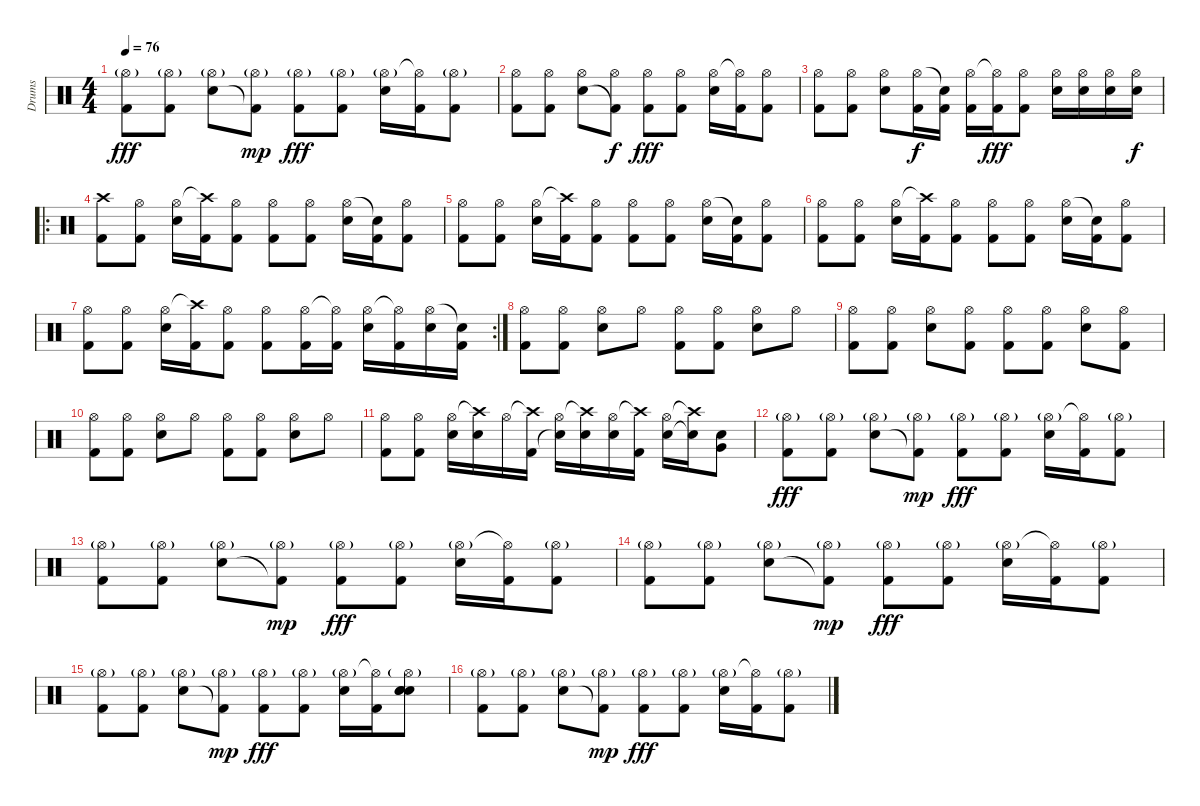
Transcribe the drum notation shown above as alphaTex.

\track ("Drums" "Drums") {instrument percussion}
\staff {score}
\articulation defaults
\ts (4 4)
\tempo 76
\clef neutral
\ks c
("Hi-Hat (open)"{g} "Kick (hit) 2").8{dy fff} ("Hi-Hat (open)"{g} "Kick (hit) 2").8 ("Hi-Hat (open)"{g} "Electric Snare (hit)").8 ("Hi-Hat (open)"{g} "Kick (hit) 2"{t}).8{dy mp} ("Hi-Hat (open)"{g} "Kick (hit) 2").8{dy fff} ("Hi-Hat (open)"{g} "Kick (hit) 2").8 ("Hi-Hat (open)"{g} "Electric Snare (hit)").16 ("Hi-Hat (open)"{t} "Kick (hit) 2").16 ("Hi-Hat (open)"{g} "Kick (hit) 2").8 |
("Hi-Hat (open)" "Kick (hit) 2").8 ("Hi-Hat (open)" "Kick (hit) 2").8 ("Hi-Hat (open)" "Electric Snare (hit)").8 ("Hi-Hat (open)" "Kick (hit) 2"{t}).8{dy f} ("Hi-Hat (open)" "Kick (hit) 2").8{dy fff} ("Hi-Hat (open)" "Kick (hit) 2").8 ("Hi-Hat (open)" "Electric Snare (hit)").16 ("Hi-Hat (open)"{t} "Kick (hit) 2").16 ("Hi-Hat (open)" "Kick (hit) 2").8 |
("Hi-Hat (open)" "Kick (hit) 2").8 ("Hi-Hat (open)" "Kick (hit) 2").8 ("Hi-Hat (open)" "Electric Snare (hit)").8 ("Hi-Hat (open)" "Kick (hit) 2").16{dy f} ("Snare (hit)"{t} "Kick (hit) 2").16 ("Hi-Hat (open)" "Kick (hit) 2").16 ("Hi-Hat (open)"{t} "Kick (hit) 2").16{dy fff} ("Hi-Hat (open)" "Kick (hit) 2").8 ("Hi-Hat (open)" "Electric Snare (hit)").16 ("Hi-Hat (open)" "Electric Snare (hit)").16 ("Hi-Hat (open)" "Electric Snare (hit)").16 ("Hi-Hat (open)" "Electric Snare (hit)").16{dy f} |
\ro
("Crash high (hit)" "Kick (hit) 2").8 ("Hi-Hat (open)" "Kick (hit) 2").8 ("Hi-Hat (open)" "Electric Snare (hit)").16 ("Crash high (hit)"{t} "Kick (hit) 2").16 ("Hi-Hat (open)" "Kick (hit) 2").8 ("Hi-Hat (open)" "Kick (hit) 2").8 ("Hi-Hat (open)" "Kick (hit) 2").8 ("Hi-Hat (open)" "Electric Snare (hit)").16 ("Snare (hit)"{t} "Kick (hit) 2").16 ("Hi-Hat (open)" "Kick (hit) 2").8 |
("Hi-Hat (open)" "Kick (hit) 2").8 ("Hi-Hat (open)" "Kick (hit) 2").8 ("Hi-Hat (open)" "Electric Snare (hit)").16 ("Crash high (hit)"{t} "Kick (hit) 2").16 ("Hi-Hat (open)" "Kick (hit) 2").8 ("Hi-Hat (open)" "Kick (hit) 2").8 ("Hi-Hat (open)" "Kick (hit) 2").8 ("Hi-Hat (open)" "Electric Snare (hit)").16 ("Snare (hit)"{t} "Kick (hit) 2").16 ("Hi-Hat (open)" "Kick (hit) 2").8 |
("Hi-Hat (open)" "Kick (hit) 2").8 ("Hi-Hat (open)" "Kick (hit) 2").8 ("Hi-Hat (open)" "Electric Snare (hit)").16 ("Crash high (hit)"{t} "Kick (hit) 2").16 ("Hi-Hat (open)" "Kick (hit) 2").8 ("Hi-Hat (open)" "Kick (hit) 2").8 ("Hi-Hat (open)" "Kick (hit) 2").8 ("Hi-Hat (open)" "Electric Snare (hit)").16 ("Snare (hit)"{t} "Kick (hit) 2").16 ("Hi-Hat (open)" "Kick (hit) 2").8 |
\rc 2
("Hi-Hat (open)" "Kick (hit) 2").8 ("Hi-Hat (open)" "Kick (hit) 2").8 ("Hi-Hat (open)" "Electric Snare (hit)").16 ("Crash high (hit)"{t} "Kick (hit) 2").16 ("Hi-Hat (open)" "Kick (hit) 2").8 ("Hi-Hat (open)" "Kick (hit) 2").8 ("Hi-Hat (open)" "Kick (hit) 2").16 ("Hi-Hat (open)"{t} "Kick (hit) 2").16 ("Hi-Hat (open)" "Electric Snare (hit)").16 ("Hi-Hat (open)"{t} "Kick (hit) 2").16 ("Hi-Hat (open)" "Electric Snare (hit)").16 ("Snare (hit)"{t} "Kick (hit) 2").16 |
("Hi-Hat (open)" "Kick (hit) 2").8 ("Hi-Hat (open)" "Kick (hit) 2").8 ("Hi-Hat (open)" "Electric Snare (hit)").8 "Hi-Hat (open)".8 ("Hi-Hat (open)" "Kick (hit) 2").8 ("Hi-Hat (open)" "Kick (hit) 2").8 ("Hi-Hat (open)" "Electric Snare (hit)").8 "Hi-Hat (open)".8 |
("Hi-Hat (open)" "Kick (hit) 2").8 ("Hi-Hat (open)" "Kick (hit) 2").8 ("Hi-Hat (open)" "Electric Snare (hit)").8 ("Hi-Hat (open)" "Kick (hit) 2").8 ("Hi-Hat (open)" "Kick (hit) 2").8 ("Hi-Hat (open)" "Kick (hit) 2").8 ("Hi-Hat (open)" "Electric Snare (hit)").8 ("Hi-Hat (open)" "Kick (hit) 2").8 |
("Hi-Hat (open)" "Kick (hit) 2").8 ("Hi-Hat (open)" "Kick (hit) 2").8 ("Hi-Hat (open)" "Electric Snare (hit)").8 "Hi-Hat (open)".8 ("Hi-Hat (open)" "Kick (hit) 2").8 ("Hi-Hat (open)" "Kick (hit) 2").8 ("Hi-Hat (open)" "Electric Snare (hit)").8 "Hi-Hat (open)".8 |
("Hi-Hat (open)" "Kick (hit) 2").8 ("Hi-Hat (open)" "Kick (hit) 2").8 ("Hi-Hat (open)" "Electric Snare (hit)").16 ("Crash high (hit)"{t} "Electric Snare (hit)").16 "Hi-Hat (open)".16 ("Crash high (hit)"{t} "Kick (hit) 2").16 ("Hi-Hat (open)" "Snare (hit)"{t}).16 ("Crash high (hit)"{t} "Electric Snare (hit)").16 ("Hi-Hat (open)" "Electric Snare (hit)").16 ("Crash high (hit)"{t} "Kick (hit) 2").16 ("Hi-Hat (open)" "Electric Snare (hit)").16 ("Crash high (hit)"{t} "Electric Snare (hit)"{t}).16 ("Very Low Tom (hit)" "Electric Snare (hit)").8 |
("Hi-Hat (open)"{g} "Kick (hit) 2").8{dy fff} ("Hi-Hat (open)"{g} "Kick (hit) 2").8 ("Hi-Hat (open)"{g} "Electric Snare (hit)").8 ("Hi-Hat (open)"{g} "Kick (hit) 2"{t}).8{dy mp} ("Hi-Hat (open)"{g} "Kick (hit) 2").8{dy fff} ("Hi-Hat (open)"{g} "Kick (hit) 2").8 ("Hi-Hat (open)"{g} "Electric Snare (hit)").16 ("Hi-Hat (open)"{t} "Kick (hit) 2").16 ("Hi-Hat (open)"{g} "Kick (hit) 2").8 |
("Hi-Hat (open)"{g} "Kick (hit) 2").8 ("Hi-Hat (open)"{g} "Kick (hit) 2").8 ("Hi-Hat (open)"{g} "Electric Snare (hit)").8 ("Hi-Hat (open)"{g} "Kick (hit) 2"{t}).8{dy mp} ("Hi-Hat (open)"{g} "Kick (hit) 2").8{dy fff} ("Hi-Hat (open)"{g} "Kick (hit) 2").8 ("Hi-Hat (open)"{g} "Electric Snare (hit)").16 ("Hi-Hat (open)"{t} "Kick (hit) 2").16 ("Hi-Hat (open)"{g} "Kick (hit) 2").8 |
("Hi-Hat (open)"{g} "Kick (hit) 2").8 ("Hi-Hat (open)"{g} "Kick (hit) 2").8 ("Hi-Hat (open)"{g} "Electric Snare (hit)").8 ("Hi-Hat (open)"{g} "Kick (hit) 2"{t}).8{dy mp} ("Hi-Hat (open)"{g} "Kick (hit) 2").8{dy fff} ("Hi-Hat (open)"{g} "Kick (hit) 2").8 ("Hi-Hat (open)"{g} "Electric Snare (hit)").16 ("Hi-Hat (open)"{t} "Kick (hit) 2").16 ("Hi-Hat (open)"{g} "Kick (hit) 2").8 |
("Hi-Hat (open)"{g} "Kick (hit) 2").8 ("Hi-Hat (open)"{g} "Kick (hit) 2").8 ("Hi-Hat (open)"{g} "Electric Snare (hit)").8 ("Hi-Hat (open)"{g} "Kick (hit) 2"{t}).8{dy mp} ("Hi-Hat (open)"{g} "Kick (hit) 2").8{dy fff} ("Hi-Hat (open)"{g} "Kick (hit) 2").8 ("Hi-Hat (open)"{g} "Electric Snare (hit)").16 ("Hi-Hat (open)"{t} "Kick (hit) 2").16 ("Hi-Hat (open)"{g} "Electric Snare (hit)" "Electric Snare (hit)" "Electric Snare (hit)").8 |
("Hi-Hat (open)"{g} "Kick (hit) 2").8 ("Hi-Hat (open)"{g} "Kick (hit) 2").8 ("Hi-Hat (open)"{g} "Electric Snare (hit)").8 ("Hi-Hat (open)"{g} "Kick (hit) 2"{t}).8{dy mp} ("Hi-Hat (open)"{g} "Kick (hit) 2").8{dy fff} ("Hi-Hat (open)"{g} "Kick (hit) 2").8 ("Hi-Hat (open)"{g} "Electric Snare (hit)").16 ("Hi-Hat (open)"{t} "Kick (hit) 2").16 ("Hi-Hat (open)"{g} "Kick (hit) 2").8
